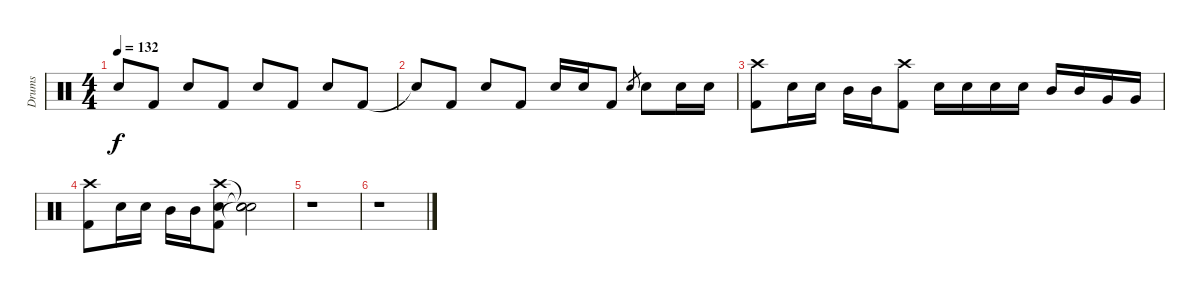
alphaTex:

\track ("Drums" "Drums") {instrument percussion}
\staff {score}
\articulation defaults
\ts (4 4)
\tempo 132
\clef neutral
\ks c "Electric Snare (hit)".8{dy f} "Kick (hit) 2".8 "Electric Snare (hit)".8 "Kick (hit) 2".8 "Electric Snare (hit)".8 "Kick (hit) 2".8 "Electric Snare (hit)".8 "Kick (hit) 2".8
|
"Snare (hit)"{t}.8 "Kick (hit) 2".8 "Electric Snare (hit)".8 "Kick (hit) 2".8 "Electric Snare (hit)".16 "Electric Snare (hit)".16 "Kick (hit) 2".8 "Electric Snare (hit)".8{gr} "Electric Snare (hit)".8 "Electric Snare (hit)".16 "Electric Snare (hit)".16 |
("Crash high (hit)" "Kick (hit) 2").8 "Electric Snare (hit)".16 "Electric Snare (hit)".16 "Mid Tom (hit)".16 "Mid Tom (hit)".16 ("Crash high (hit)" "Kick (hit) 2").8 "Electric Snare (hit)".16 "Electric Snare (hit)".16 "Electric Snare (hit)".16 "Electric Snare (hit)".16 "Mid Tom (hit)".16 "Mid Tom (hit)".16 "Very Low Tom (hit)".16 "Very Low Tom (hit)".16 |
("Crash high (hit)" "Kick (hit) 2").8 "Electric Snare (hit)".16 "Electric Snare (hit)".16 "Mid Tom (hit)".16 "Mid Tom (hit)".16 ("Crash high (hit)" "Electric Snare (hit)" "Kick (hit) 2").8 ("Snare (hit)"{t} "Snare (hit)"{t} "Snare (hit)"{t}).2 |
r.1 |
r.1
